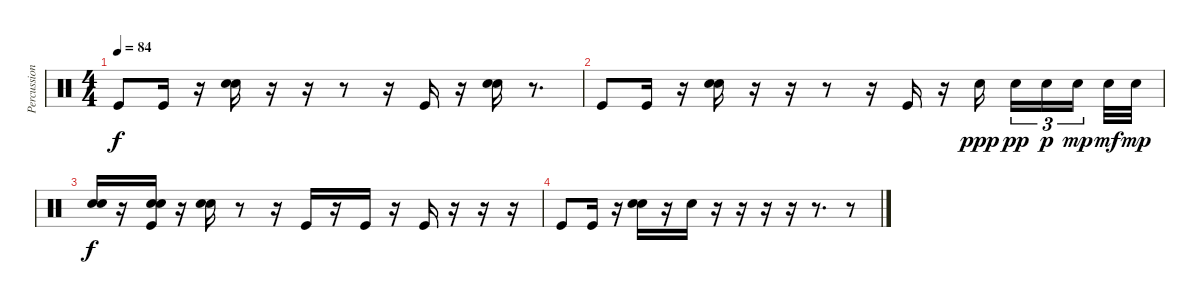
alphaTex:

\track ("Percussions" "Percussion") {instrument percussion}
\staff {score}
\articulation defaults
\ts (4 4)
\tempo 84
\clef neutral
\ks c "Kick (hit)".8{dy f} "Kick (hit)".16
r.16 ("Electric Snare (hit)" "Electric Snare (hit)").16{bd 240} r.16 r.16 r.8 r.16 "Kick (hit)".16 r.16 ("Electric Snare (hit)" "Electric Snare (hit)").16{bd 240} r.8{d} |
"Kick (hit)".8 "Kick (hit)".16 r.16 ("Electric Snare (hit)" "Electric Snare (hit)").16{bd 240} r.16 r.16 r.8 r.16 "Kick (hit)".16 r.16 "Electric Snare (hit)".16{dy ppp} "Electric Snare (hit)".16{tu (3 2) dy pp} "Electric Snare (hit)".16{tu (3 2) dy p} "Electric Snare (hit)".16{tu (3 2) dy mp} "Electric Snare (hit)".32{dy mf} "Electric Snare (hit)".32{dy mp} |
("Electric Snare (hit)" "Electric Snare (hit)").16{bd 240 dy f} r.16 ("Snare (hit) 2" "Electric Snare (hit)" "Kick (hit)").16 r.16 ("Electric Snare (hit)" "Electric Snare (hit)").16 r.8 r.16 "Kick (hit)".16 r.16 "Kick (hit)".16 r.16 "Kick (hit)".16 r.16 r.16 r.16 |
"Kick (hit)".8 "Kick (hit)".16 r.16 ("Electric Snare (hit)" "Electric Snare (hit)").16{bd 240} r.16 "Electric Snare (hit)".16 r.16 r.16 r.16 r.16 r.8{d} r.8
